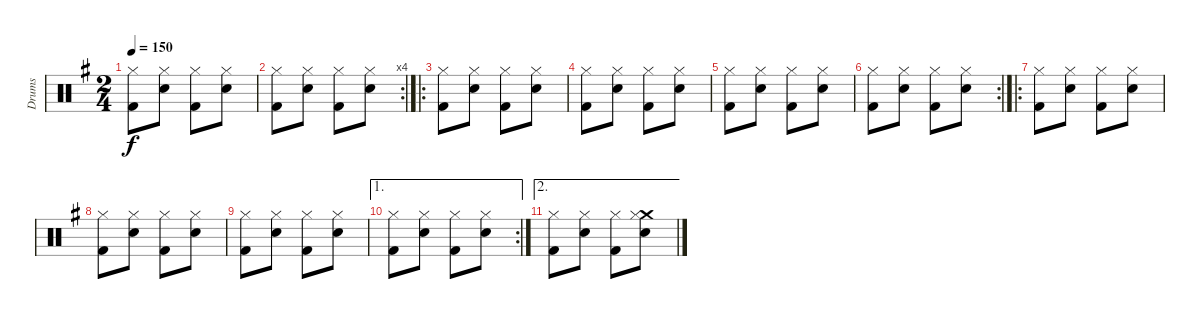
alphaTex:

\track ("Drums" "Drums") {instrument percussion}
\staff {score}
\articulation defaults
\ts (2 4)
\tempo 150
\clef neutral
\ks g
("Hi-Hat (closed)" "Kick (hit) 2").8{dy f} ("Hi-Hat (closed)" "Electric Snare (hit)").8 ("Hi-Hat (closed)" "Kick (hit) 2").8 ("Hi-Hat (closed)" "Electric Snare (hit)").8 |
\rc 4
("Hi-Hat (closed)" "Kick (hit) 2").8 ("Hi-Hat (closed)" "Electric Snare (hit)").8 ("Hi-Hat (closed)" "Kick (hit) 2").8 ("Hi-Hat (closed)" "Electric Snare (hit)").8 |
\ro
("Hi-Hat (closed)" "Kick (hit) 2").8 ("Hi-Hat (closed)" "Electric Snare (hit)").8 ("Hi-Hat (closed)" "Kick (hit) 2").8 ("Hi-Hat (closed)" "Electric Snare (hit)").8 |
("Hi-Hat (closed)" "Kick (hit) 2").8 ("Hi-Hat (closed)" "Electric Snare (hit)").8 ("Hi-Hat (closed)" "Kick (hit) 2").8 ("Hi-Hat (closed)" "Electric Snare (hit)").8 |
("Hi-Hat (closed)" "Kick (hit) 2").8 ("Hi-Hat (closed)" "Electric Snare (hit)").8 ("Hi-Hat (closed)" "Kick (hit) 2").8 ("Hi-Hat (closed)" "Electric Snare (hit)").8 |
\rc 2
("Hi-Hat (closed)" "Kick (hit) 2").8 ("Hi-Hat (closed)" "Electric Snare (hit)").8 ("Hi-Hat (closed)" "Kick (hit) 2").8 ("Hi-Hat (closed)" "Electric Snare (hit)").8 |
\ro
("Hi-Hat (closed)" "Kick (hit) 2").8 ("Hi-Hat (closed)" "Electric Snare (hit)").8 ("Hi-Hat (closed)" "Kick (hit) 2").8 ("Hi-Hat (closed)" "Electric Snare (hit)").8 |
("Hi-Hat (closed)" "Kick (hit) 2").8 ("Hi-Hat (closed)" "Electric Snare (hit)").8 ("Hi-Hat (closed)" "Kick (hit) 2").8 ("Hi-Hat (closed)" "Electric Snare (hit)").8 |
("Hi-Hat (closed)" "Kick (hit) 2").8 ("Hi-Hat (closed)" "Electric Snare (hit)").8 ("Hi-Hat (closed)" "Kick (hit) 2").8 ("Hi-Hat (closed)" "Electric Snare (hit)").8 |
\ae 1
\rc 2
("Hi-Hat (closed)" "Kick (hit) 2").8 ("Hi-Hat (closed)" "Electric Snare (hit)").8 ("Hi-Hat (closed)" "Kick (hit) 2").8 ("Hi-Hat (closed)" "Electric Snare (hit)").8 |
\ae 2
("Hi-Hat (closed)" "Kick (hit) 2").8 ("Hi-Hat (closed)" "Electric Snare (hit)").8 ("Hi-Hat (closed)" "Kick (hit) 2").8 ("Crash medium (hit)" "Hi-Hat (closed)" "Electric Snare (hit)").8
